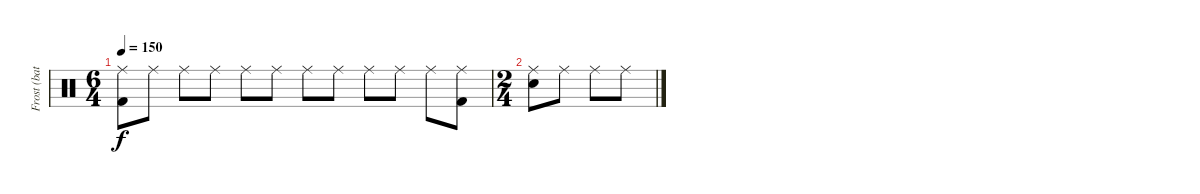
\track ("Frost (battery)" "Frost (bat") {instrument percussion}
\staff {score}
\articulation defaults
\ts (6 4)
\tempo 150
\clef neutral
\ks c
("Ride (middle)" "Kick (hit) 2").8{dy f} "Ride (middle)".8 "Ride (middle)".8 "Ride (middle)".8 "Ride (middle)".8 "Ride (middle)".8 "Ride (middle)".8 "Ride (middle)".8 "Ride (middle)".8 "Ride (middle)".8 "Ride (middle)".8 ("Ride (middle)" "Kick (hit) 2").8 |
\ts (2 4)
("Ride (middle)" "Electric Snare (hit)").8 "Ride (middle)".8 "Ride (middle)".8 "Ride (middle)".8
